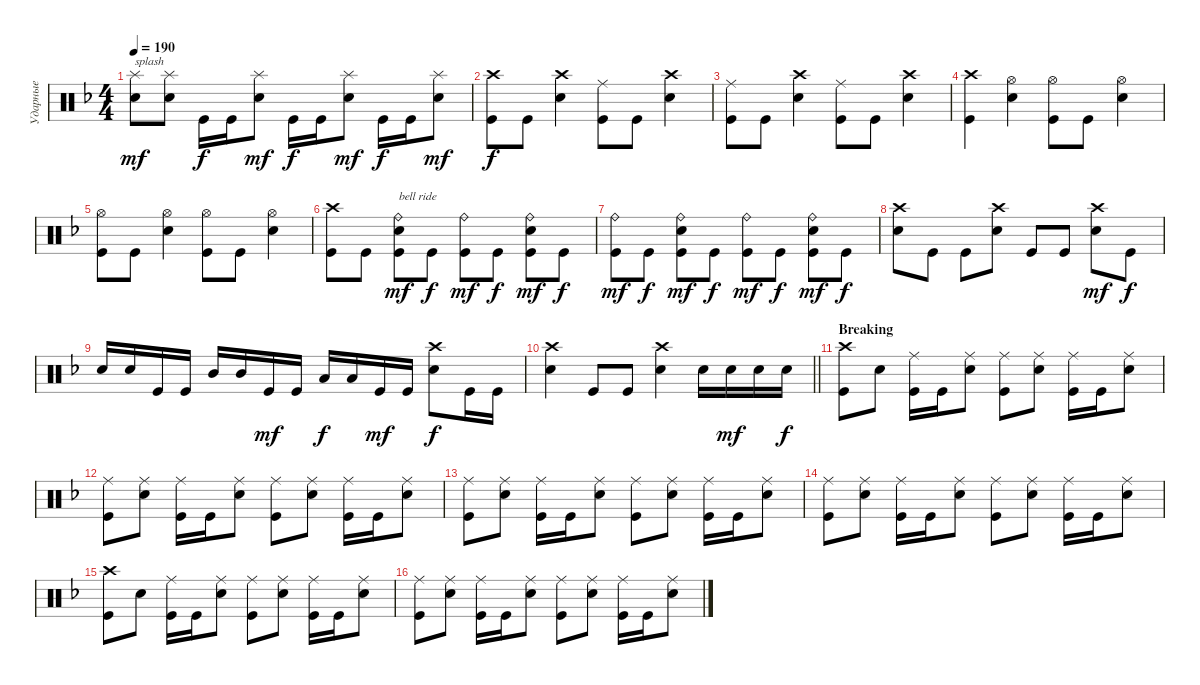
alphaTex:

\track ("Ударные" "Ударные") {instrument percussion}
\staff {score}
\articulation defaults
\ts (4 4)
\tempo 190
\clef neutral
\ks dminor
("Snare (hit) 2" "Splash (hit)").8{txt "splash" dy mf} ("Snare (hit) 2" "Splash (hit)").8 "Kick (hit)".16{dy f} "Kick (hit)".16 ("Snare (hit) 2" "Splash (hit)").8{dy mf} "Kick (hit)".16{dy f} "Kick (hit)".16 ("Snare (hit) 2" "Splash (hit)").8{dy mf} "Kick (hit)".16{dy f} "Kick (hit)".16 ("Snare (hit) 2" "Splash (hit)").8{dy mf} |
("Kick (hit)" "Crash high (hit)").8{dy f} "Kick (hit)".8 ("Snare (hit) 2" "Crash high (hit)").4 ("Kick (hit)" "Ride (middle)").8 "Kick (hit)".8 ("Snare (hit) 2" "Crash high (hit)").4 |
("Kick (hit)" "Ride (middle)").8 "Kick (hit)".8 ("Snare (hit) 2" "Crash high (hit)").4 ("Kick (hit)" "Ride (middle)").8 "Kick (hit)".8 ("Snare (hit) 2" "Crash high (hit)").4 |
("Kick (hit)" "Crash high (hit)").4 ("Snare (hit) 2" "Hi-Hat (open)").4 ("Kick (hit)" "Hi-Hat (open)").8 "Kick (hit)".8 ("Snare (hit) 2" "Hi-Hat (open)").4 |
("Kick (hit)" "Hi-Hat (open)").8 "Kick (hit)".8 ("Snare (hit) 2" "Hi-Hat (open)").4 ("Kick (hit)" "Hi-Hat (open)").8 "Kick (hit)".8 ("Snare (hit) 2" "Hi-Hat (open)").4 |
("Kick (hit)" "Crash high (hit)").8 "Kick (hit)".8 ("Kick (hit)" "Snare (hit) 2" "Ride (bell)").8{txt "bell ride" dy mf} "Kick (hit)".8{dy f} ("Kick (hit)" "Ride (bell)").8{dy mf} "Kick (hit)".8{dy f} ("Kick (hit)" "Snare (hit) 2" "Ride (bell)").8{dy mf} "Kick (hit)".8{dy f} |
("Kick (hit)" "Ride (bell)").8{dy mf} "Kick (hit)".8{dy f} ("Kick (hit)" "Snare (hit) 2" "Ride (bell)").8{dy mf} "Kick (hit)".8{dy f} ("Kick (hit)" "Ride (bell)").8{dy mf} "Kick (hit)".8{dy f} ("Kick (hit)" "Snare (hit) 2" "Ride (bell)").8{dy mf} "Kick (hit)".8{dy f} |
("Snare (hit) 2" "Crash high (hit)").8 "Kick (hit)".8 "Kick (hit)".8 ("Snare (hit) 2" "Crash high (hit)").8 "Kick (hit)".8 "Kick (hit)".8 ("Snare (hit) 2" "Crash high (hit)").8{dy mf} "Kick (hit)".8{dy f} |
"Snare (hit) 2".16 "Snare (hit) 2".16 "Kick (hit)".16 "Kick (hit)".16 "Mid Tom (hit)".16 "Mid Tom (hit)".16 "Kick (hit)".16{dy mf} "Kick (hit)".16 "Low Tom (hit)".16{dy f} "Low Tom (hit)".16 "Kick (hit)".16{dy mf} "Kick (hit)".16 ("Snare (hit) 2" "Crash high (hit)").8{dy f} "Kick (hit)".16 "Kick (hit)".16 |
\barLineRight lightlight
("Snare (hit) 2" "Crash high (hit)").4 "Kick (hit)".8 "Kick (hit)".8 ("Snare (hit) 2" "Crash high (hit)").4 "Snare (hit) 2".16 "Snare (hit) 2".16{dy mf} "Snare (hit) 2".16 "Snare (hit) 2".16{dy f} |
\section ("" "Breaking")
("Kick (hit)" "Crash high (hit)").8 "Snare (hit) 2".8 ("Kick (hit)" "Ride (middle)").16 "Kick (hit)".16 ("Snare (hit) 2" "Ride (middle)").8 ("Kick (hit)" "Ride (middle)").8 ("Snare (hit) 2" "Ride (middle)").8 ("Kick (hit)" "Ride (middle)").16 "Kick (hit)".16 ("Snare (hit) 2" "Ride (middle)").8 |
("Kick (hit)" "Ride (middle)").8 ("Snare (hit) 2" "Ride (middle)").8 ("Kick (hit)" "Ride (middle)").16 "Kick (hit)".16 ("Snare (hit) 2" "Ride (middle)").8 ("Kick (hit)" "Ride (middle)").8 ("Snare (hit) 2" "Ride (middle)").8 ("Kick (hit)" "Ride (middle)").16 "Kick (hit)".16 ("Snare (hit) 2" "Ride (middle)").8 |
("Kick (hit)" "Ride (middle)").8 ("Snare (hit) 2" "Ride (middle)").8 ("Kick (hit)" "Ride (middle)").16 "Kick (hit)".16 ("Snare (hit) 2" "Ride (middle)").8 ("Kick (hit)" "Ride (middle)").8 ("Snare (hit) 2" "Ride (middle)").8 ("Kick (hit)" "Ride (middle)").16 "Kick (hit)".16 ("Snare (hit) 2" "Ride (middle)").8 |
("Kick (hit)" "Ride (middle)").8 ("Snare (hit) 2" "Ride (middle)").8 ("Kick (hit)" "Ride (middle)").16 "Kick (hit)".16 ("Snare (hit) 2" "Ride (middle)").8 ("Kick (hit)" "Ride (middle)").8 ("Snare (hit) 2" "Ride (middle)").8 ("Kick (hit)" "Ride (middle)").16 "Kick (hit)".16 ("Snare (hit) 2" "Ride (middle)").8 |
("Kick (hit)" "Crash high (hit)").8 "Snare (hit) 2".8 ("Kick (hit)" "Ride (middle)").16 "Kick (hit)".16 ("Snare (hit) 2" "Ride (middle)").8 ("Kick (hit)" "Ride (middle)").8 ("Snare (hit) 2" "Ride (middle)").8 ("Kick (hit)" "Ride (middle)").16 "Kick (hit)".16 ("Snare (hit) 2" "Ride (middle)").8 |
("Kick (hit)" "Ride (middle)").8 ("Snare (hit) 2" "Ride (middle)").8 ("Kick (hit)" "Ride (middle)").16 "Kick (hit)".16 ("Snare (hit) 2" "Ride (middle)").8 ("Kick (hit)" "Ride (middle)").8 ("Snare (hit) 2" "Ride (middle)").8 ("Kick (hit)" "Ride (middle)").16 "Kick (hit)".16 ("Snare (hit) 2" "Ride (middle)").8
